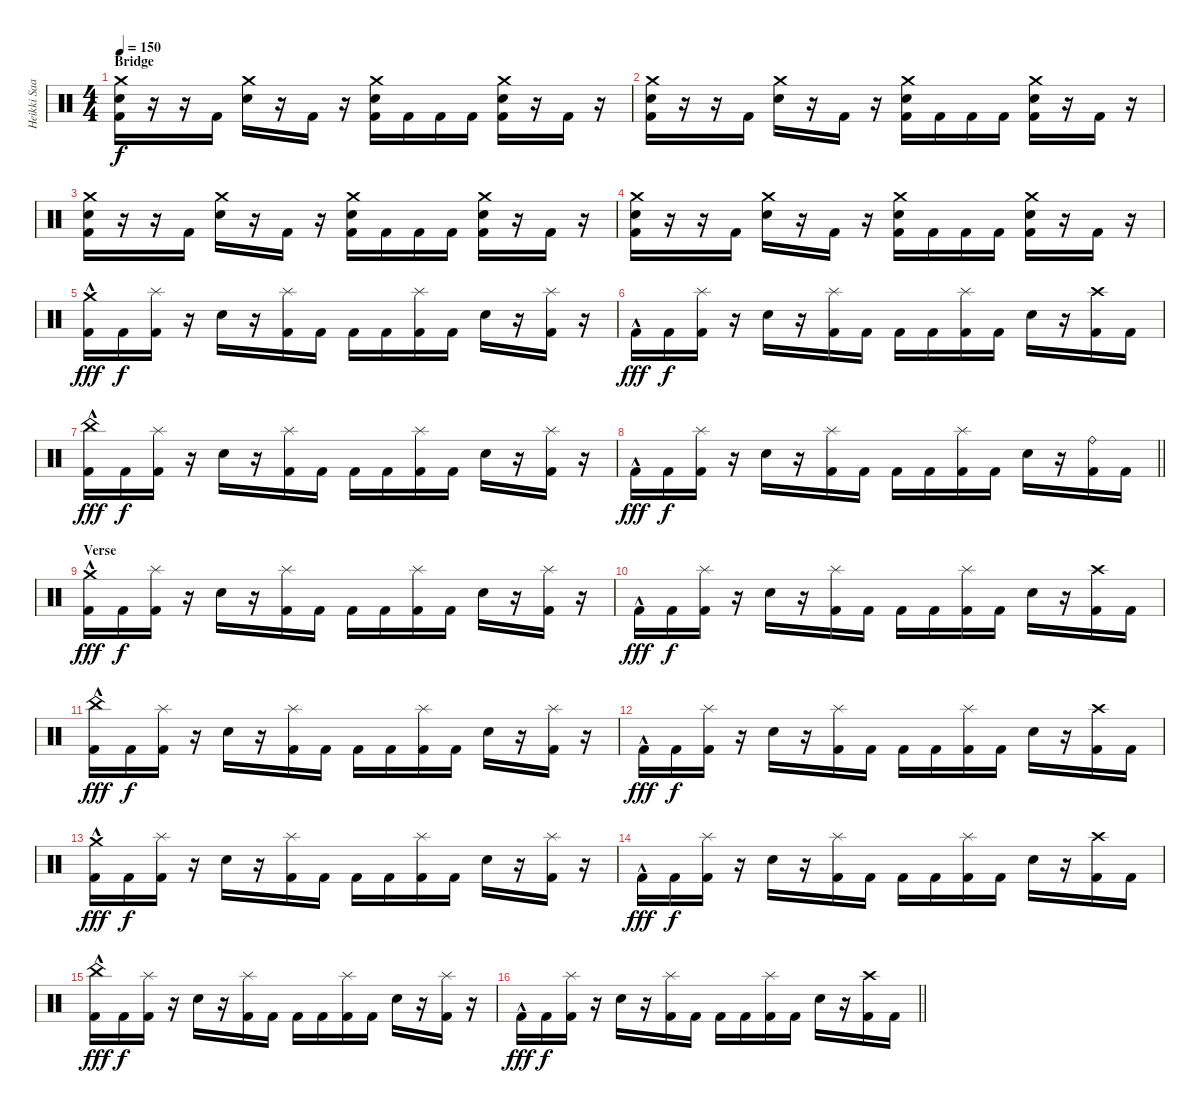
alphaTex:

\track ("Heikki Saari" "Heikki Saa") {instrument percussion}
\staff {score}
\articulation defaults
\ts (4 4)
\section ("" "Bridge")
\tempo 150
\clef neutral
\ks c
("Crash medium (hit)" "Electric Snare (hit)" "Kick (hit) 2").16{dy f} r.16 r.16 "Kick (hit) 2".16 ("Crash medium (hit)" "Electric Snare (hit)").16 r.16 "Kick (hit) 2".16 r.16 ("Crash medium (hit)" "Electric Snare (hit)" "Kick (hit) 2").16 "Kick (hit) 2".16 "Kick (hit) 2".16 "Kick (hit) 2".16 ("Crash medium (hit)" "Electric Snare (hit)" "Kick (hit) 2").16 r.16 "Kick (hit) 2".16 r.16 |
("Crash medium (hit)" "Electric Snare (hit)" "Kick (hit) 2").16 r.16 r.16 "Kick (hit) 2".16 ("Crash medium (hit)" "Electric Snare (hit)").16 r.16 "Kick (hit) 2".16 r.16 ("Crash medium (hit)" "Electric Snare (hit)" "Kick (hit) 2").16 "Kick (hit) 2".16 "Kick (hit) 2".16 "Kick (hit) 2".16 ("Crash medium (hit)" "Electric Snare (hit)" "Kick (hit) 2").16 r.16 "Kick (hit) 2".16 r.16 |
("Crash medium (hit)" "Electric Snare (hit)" "Kick (hit) 2").16 r.16 r.16 "Kick (hit) 2".16 ("Crash medium (hit)" "Electric Snare (hit)").16 r.16 "Kick (hit) 2".16 r.16 ("Crash medium (hit)" "Electric Snare (hit)" "Kick (hit) 2").16 "Kick (hit) 2".16 "Kick (hit) 2".16 "Kick (hit) 2".16 ("Crash medium (hit)" "Electric Snare (hit)" "Kick (hit) 2").16 r.16 "Kick (hit) 2".16 r.16 |
("Crash medium (hit)" "Electric Snare (hit)" "Kick (hit) 2").16 r.16 r.16 "Kick (hit) 2".16 ("Crash medium (hit)" "Electric Snare (hit)").16 r.16 "Kick (hit) 2".16 r.16 ("Crash medium (hit)" "Electric Snare (hit)" "Kick (hit) 2").16 "Kick (hit) 2".16 "Kick (hit) 2".16 "Kick (hit) 2".16 ("Crash medium (hit)" "Electric Snare (hit)" "Kick (hit) 2").16 r.16 "Kick (hit) 2".16 r.16 |
("Crash medium (hit)"{hac} "Kick (hit) 2").16{dy fff} "Kick (hit) 2".16{dy f} ("Kick (hit) 2" "Splash (hit)").16 r.16 "Electric Snare (hit)".16 r.16 ("Kick (hit) 2" "Splash (hit)").16 "Kick (hit) 2".16 "Kick (hit) 2".16 "Kick (hit) 2".16 ("Kick (hit) 2" "Splash (hit)").16 "Kick (hit) 2".16 "Electric Snare (hit)".16 r.16 ("Kick (hit) 2" "Splash (hit)").16 r.16 |
"Kick (hit) 2"{hac}.16{dy fff} "Kick (hit) 2".16{dy f} ("Kick (hit) 2" "Splash (hit)").16 r.16 "Electric Snare (hit)".16 r.16 ("Kick (hit) 2" "Splash (hit)").16 "Kick (hit) 2".16 "Kick (hit) 2".16 "Kick (hit) 2".16 ("Kick (hit) 2" "Splash (hit)").16 "Kick (hit) 2".16 "Electric Snare (hit)".16 r.16 ("Kick (hit) 2" "Crash high (hit)").16 "Kick (hit) 2".16 |
("Kick (hit) 2"{hac} "China (hit)").16{dy fff} "Kick (hit) 2".16{dy f} ("Kick (hit) 2" "Splash (hit)").16 r.16 "Electric Snare (hit)".16 r.16 ("Kick (hit) 2" "Splash (hit)").16 "Kick (hit) 2".16 "Kick (hit) 2".16 "Kick (hit) 2".16 ("Kick (hit) 2" "Splash (hit)").16 "Kick (hit) 2".16 "Electric Snare (hit)".16 r.16 ("Kick (hit) 2" "Splash (hit)").16 r.16 |
\barLineRight lightlight "Kick (hit) 2"{hac}.16{dy fff} "Kick (hit) 2".16{dy f}
("Kick (hit) 2" "Splash (hit)").16 r.16 "Electric Snare (hit)".16 r.16 ("Kick (hit) 2" "Splash (hit)").16 "Kick (hit) 2".16 "Kick (hit) 2".16 "Kick (hit) 2".16 ("Kick (hit) 2" "Splash (hit)").16 "Kick (hit) 2".16 "Electric Snare (hit)".16 r.16 ("Kick (hit) 2" "Ride (bell)").16 "Kick (hit) 2".16 |
\section ("" "Verse")
("Crash medium (hit)"{hac} "Kick (hit) 2").16{dy fff} "Kick (hit) 2".16{dy f} ("Kick (hit) 2" "Splash (hit)").16 r.16 "Electric Snare (hit)".16 r.16 ("Kick (hit) 2" "Splash (hit)").16 "Kick (hit) 2".16 "Kick (hit) 2".16 "Kick (hit) 2".16 ("Kick (hit) 2" "Splash (hit)").16 "Kick (hit) 2".16 "Electric Snare (hit)".16 r.16 ("Kick (hit) 2" "Splash (hit)").16 r.16 |
"Kick (hit) 2"{hac}.16{dy fff} "Kick (hit) 2".16{dy f} ("Kick (hit) 2" "Splash (hit)").16 r.16 "Electric Snare (hit)".16 r.16 ("Kick (hit) 2" "Splash (hit)").16 "Kick (hit) 2".16 "Kick (hit) 2".16 "Kick (hit) 2".16 ("Kick (hit) 2" "Splash (hit)").16 "Kick (hit) 2".16 "Electric Snare (hit)".16 r.16 ("Kick (hit) 2" "Crash high (hit)").16 "Kick (hit) 2".16 |
("Kick (hit) 2"{hac} "China (hit)").16{dy fff} "Kick (hit) 2".16{dy f} ("Kick (hit) 2" "Splash (hit)").16 r.16 "Electric Snare (hit)".16 r.16 ("Kick (hit) 2" "Splash (hit)").16 "Kick (hit) 2".16 "Kick (hit) 2".16 "Kick (hit) 2".16 ("Kick (hit) 2" "Splash (hit)").16 "Kick (hit) 2".16 "Electric Snare (hit)".16 r.16 ("Kick (hit) 2" "Splash (hit)").16 r.16 |
"Kick (hit) 2"{hac}.16{dy fff} "Kick (hit) 2".16{dy f} ("Kick (hit) 2" "Splash (hit)").16 r.16 "Electric Snare (hit)".16 r.16 ("Kick (hit) 2" "Splash (hit)").16 "Kick (hit) 2".16 "Kick (hit) 2".16 "Kick (hit) 2".16 ("Kick (hit) 2" "Splash (hit)").16 "Kick (hit) 2".16 "Electric Snare (hit)".16 r.16 ("Kick (hit) 2" "Crash high (hit)").16 "Kick (hit) 2".16 |
("Crash medium (hit)"{hac} "Kick (hit) 2").16{dy fff} "Kick (hit) 2".16{dy f} ("Kick (hit) 2" "Splash (hit)").16 r.16 "Electric Snare (hit)".16 r.16 ("Kick (hit) 2" "Splash (hit)").16 "Kick (hit) 2".16 "Kick (hit) 2".16 "Kick (hit) 2".16 ("Kick (hit) 2" "Splash (hit)").16 "Kick (hit) 2".16 "Electric Snare (hit)".16 r.16 ("Kick (hit) 2" "Splash (hit)").16 r.16 |
"Kick (hit) 2"{hac}.16{dy fff} "Kick (hit) 2".16{dy f} ("Kick (hit) 2" "Splash (hit)").16 r.16 "Electric Snare (hit)".16 r.16 ("Kick (hit) 2" "Splash (hit)").16 "Kick (hit) 2".16 "Kick (hit) 2".16 "Kick (hit) 2".16 ("Kick (hit) 2" "Splash (hit)").16 "Kick (hit) 2".16 "Electric Snare (hit)".16 r.16 ("Kick (hit) 2" "Crash high (hit)").16 "Kick (hit) 2".16 |
("Kick (hit) 2"{hac} "China (hit)").16{dy fff} "Kick (hit) 2".16{dy f} ("Kick (hit) 2" "Splash (hit)").16 r.16 "Electric Snare (hit)".16 r.16 ("Kick (hit) 2" "Splash (hit)").16 "Kick (hit) 2".16 "Kick (hit) 2".16 "Kick (hit) 2".16 ("Kick (hit) 2" "Splash (hit)").16 "Kick (hit) 2".16 "Electric Snare (hit)".16 r.16 ("Kick (hit) 2" "Splash (hit)").16 r.16 |
\barLineRight lightlight "Kick (hit) 2"{hac}.16{dy fff} "Kick (hit) 2".16{dy f}
("Kick (hit) 2" "Splash (hit)").16 r.16 "Electric Snare (hit)".16 r.16 ("Kick (hit) 2" "Splash (hit)").16 "Kick (hit) 2".16 "Kick (hit) 2".16 "Kick (hit) 2".16 ("Kick (hit) 2" "Splash (hit)").16 "Kick (hit) 2".16 "Electric Snare (hit)".16 r.16 ("Kick (hit) 2" "Crash high (hit)").16 "Kick (hit) 2".16
